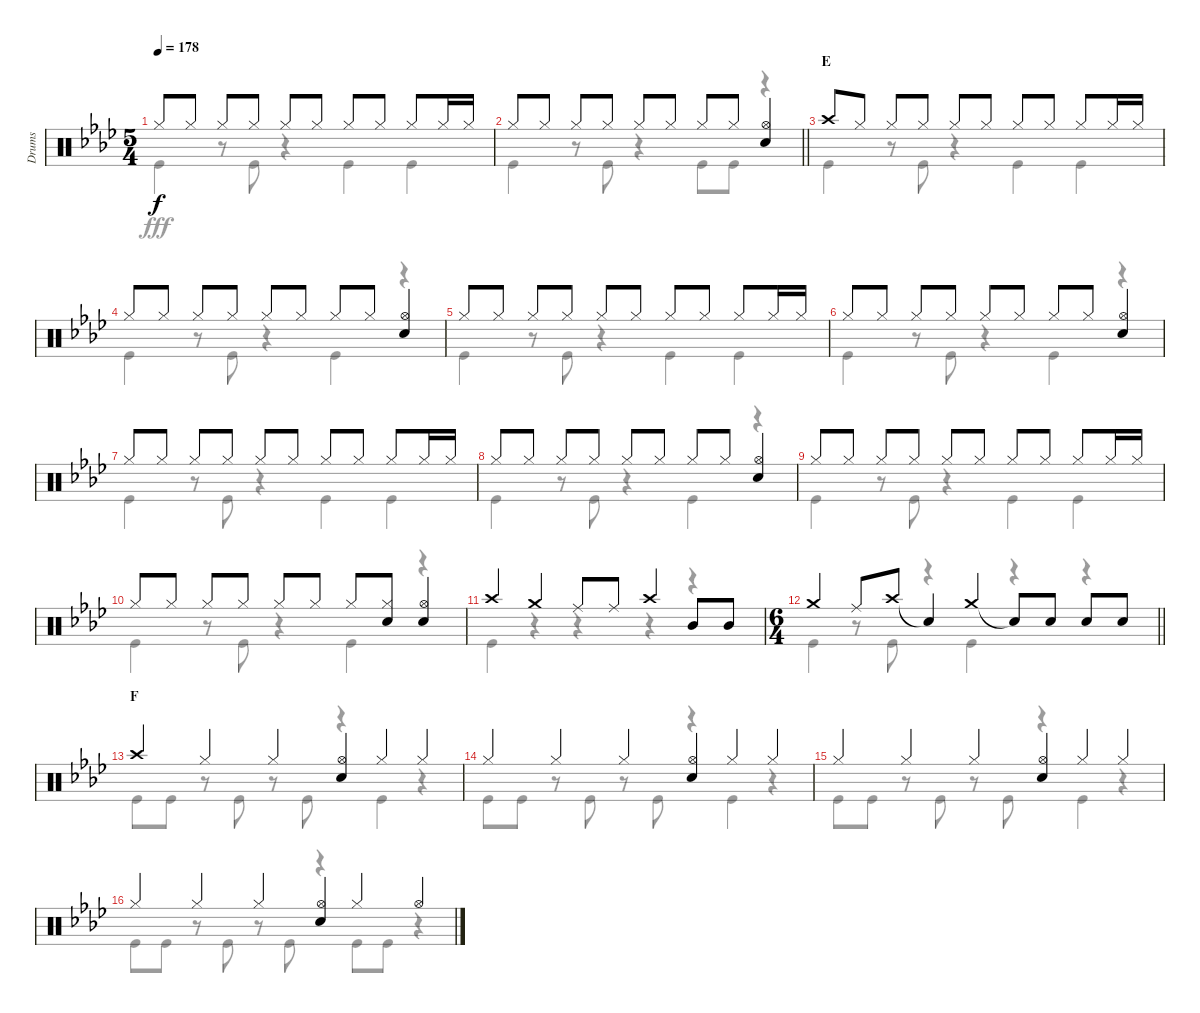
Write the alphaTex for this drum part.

\track ("Drums" "Drums") {instrument percussion}
\staff {score}
\articulation defaults
\voice
\ts (5 4)
\tempo 178
\clef neutral
\ks ab "Hi-Hat (closed)".8{dy f} "Hi-Hat (closed)".8 "Hi-Hat (closed)".8 "Hi-Hat (closed)".8 "Hi-Hat (closed)".8 "Hi-Hat (closed)".8 "Hi-Hat (closed)".8 "Hi-Hat (closed)".8 "Hi-Hat (closed)".8 "Hi-Hat (closed)".16 "Hi-Hat (closed)".16
|
\barLineRight lightlight "Hi-Hat (closed)".8 "Hi-Hat (closed)".8 "Hi-Hat (closed)".8 "Hi-Hat (closed)".8 "Hi-Hat (closed)".8 "Hi-Hat (closed)".8 "Hi-Hat (closed)".8 "Hi-Hat (closed)".8
("Hi-Hat (open)" "Snare (hit) 2").4 |
\section ("" "E")
"Crash high (hit)".8 "Hi-Hat (closed)".8 "Hi-Hat (closed)".8 "Hi-Hat (closed)".8 "Hi-Hat (closed)".8 "Hi-Hat (closed)".8 "Hi-Hat (closed)".8 "Hi-Hat (closed)".8 "Hi-Hat (closed)".8 "Hi-Hat (closed)".16 "Hi-Hat (closed)".16 |
"Hi-Hat (closed)".8 "Hi-Hat (closed)".8 "Hi-Hat (closed)".8 "Hi-Hat (closed)".8 "Hi-Hat (closed)".8 "Hi-Hat (closed)".8 "Hi-Hat (closed)".8 "Hi-Hat (closed)".8 ("Hi-Hat (open)" "Snare (hit) 2").4 |
"Hi-Hat (closed)".8 "Hi-Hat (closed)".8 "Hi-Hat (closed)".8 "Hi-Hat (closed)".8 "Hi-Hat (closed)".8 "Hi-Hat (closed)".8 "Hi-Hat (closed)".8 "Hi-Hat (closed)".8 "Hi-Hat (closed)".8 "Hi-Hat (closed)".16 "Hi-Hat (closed)".16 |
"Hi-Hat (closed)".8 "Hi-Hat (closed)".8 "Hi-Hat (closed)".8 "Hi-Hat (closed)".8 "Hi-Hat (closed)".8 "Hi-Hat (closed)".8 "Hi-Hat (closed)".8 "Hi-Hat (closed)".8 ("Hi-Hat (open)" "Snare (hit) 2").4 |
"Hi-Hat (closed)".8 "Hi-Hat (closed)".8 "Hi-Hat (closed)".8 "Hi-Hat (closed)".8 "Hi-Hat (closed)".8 "Hi-Hat (closed)".8 "Hi-Hat (closed)".8 "Hi-Hat (closed)".8 "Hi-Hat (closed)".8 "Hi-Hat (closed)".16 "Hi-Hat (closed)".16 |
"Hi-Hat (closed)".8 "Hi-Hat (closed)".8 "Hi-Hat (closed)".8 "Hi-Hat (closed)".8 "Hi-Hat (closed)".8 "Hi-Hat (closed)".8 "Hi-Hat (closed)".8 "Hi-Hat (closed)".8 ("Hi-Hat (open)" "Snare (hit) 2").4 |
"Hi-Hat (closed)".8 "Hi-Hat (closed)".8 "Hi-Hat (closed)".8 "Hi-Hat (closed)".8 "Hi-Hat (closed)".8 "Hi-Hat (closed)".8 "Hi-Hat (closed)".8 "Hi-Hat (closed)".8 "Hi-Hat (closed)".8 "Hi-Hat (closed)".16 "Hi-Hat (closed)".16 |
"Hi-Hat (closed)".8 "Hi-Hat (closed)".8 "Hi-Hat (closed)".8 "Hi-Hat (closed)".8 "Hi-Hat (closed)".8 "Hi-Hat (closed)".8 "Hi-Hat (closed)".8 ("Hi-Hat (closed)" "Snare (hit) 2").8 ("Hi-Hat (open)" "Snare (hit) 2").4 |
"Crash high (hit)".4 "Crash medium (hit)".4 "Ride (middle)".8 "Ride (middle)".8 "Crash high (hit)".4 "Mid Tom (hit)".8 "Mid Tom (hit)".8 |
\ts (6 4)
\barLineRight lightlight "Crash medium (hit)".4 "Ride (middle)".8 "Crash high (hit)".8 "Snare (hit)"{t}.4 "Crash medium (hit)".4 "Snare (hit)"{t}.8 "Snare (hit) 2".8 "Snare (hit) 2".8 "Snare (hit) 2".8
|
\section ("" "F")
"Crash high (hit)".4 "Hi-Hat (closed)".4 "Hi-Hat (closed)".4 ("Hi-Hat (open)" "Snare (hit) 2").4 "Hi-Hat (closed)".4 "Hi-Hat (closed)".4 |
"Hi-Hat (closed)".4 "Hi-Hat (closed)".4 "Hi-Hat (closed)".4 ("Hi-Hat (open)" "Snare (hit) 2").4 "Hi-Hat (closed)".4 "Hi-Hat (closed)".4 |
"Hi-Hat (closed)".4 "Hi-Hat (closed)".4 "Hi-Hat (closed)".4 ("Hi-Hat (open)" "Snare (hit) 2").4 "Hi-Hat (closed)".4 "Hi-Hat (closed)".4 |
"Hi-Hat (closed)".4 "Hi-Hat (closed)".4 "Hi-Hat (closed)".4 ("Hi-Hat (open)" "Snare (hit) 2").4 "Hi-Hat (closed)".4 "Hi-Hat (open)".4
\voice
\clef neutral
\ottava regular
\simile none
\ks ab "Kick (hit)".4{dy fff}
r.8 "Kick (hit)".8 r.4 "Kick (hit)".4 "Kick (hit)".4 |
\barLineRight lightlight "Kick (hit)".4
r.8 "Kick (hit)".8 r.4 "Kick (hit)".8 "Kick (hit)".8 r.4 |
"Kick (hit)".4 r.8 "Kick (hit)".8 r.4 "Kick (hit)".4 "Kick (hit)".4 |
"Kick (hit)".4 r.8 "Kick (hit)".8 r.4 "Kick (hit)".4 r.4 |
"Kick (hit)".4 r.8 "Kick (hit)".8 r.4 "Kick (hit)".4 "Kick (hit)".4 |
"Kick (hit)".4 r.8 "Kick (hit)".8 r.4 "Kick (hit)".4 r.4 |
"Kick (hit)".4 r.8 "Kick (hit)".8 r.4 "Kick (hit)".4 "Kick (hit)".4 |
"Kick (hit)".4 r.8 "Kick (hit)".8 r.4 "Kick (hit)".4 r.4 |
"Kick (hit)".4 r.8 "Kick (hit)".8 r.4 "Kick (hit)".4 "Kick (hit)".4 |
"Kick (hit)".4 r.8 "Kick (hit)".8 r.4 "Kick (hit)".4 r.4 |
"Kick (hit)".4 r.4 r.4 r.4 r.4 |
\barLineRight lightlight "Kick (hit)".4
r.8 "Kick (hit)".8 r.4 "Kick (hit)".4 r.4 r.4 |
"Kick (hit)".8 "Kick (hit)".8 r.8 "Kick (hit)".8 r.8 "Kick (hit)".8 r.4 "Kick (hit)".4 r.4 |
"Kick (hit)".8 "Kick (hit)".8 r.8 "Kick (hit)".8 r.8 "Kick (hit)".8 r.4 "Kick (hit)".4 r.4 |
"Kick (hit)".8 "Kick (hit)".8 r.8 "Kick (hit)".8 r.8 "Kick (hit)".8 r.4 "Kick (hit)".4 r.4 |
"Kick (hit)".8 "Kick (hit)".8 r.8 "Kick (hit)".8 r.8 "Kick (hit)".8 r.4 "Kick (hit)".8 "Kick (hit)".8 r.4
